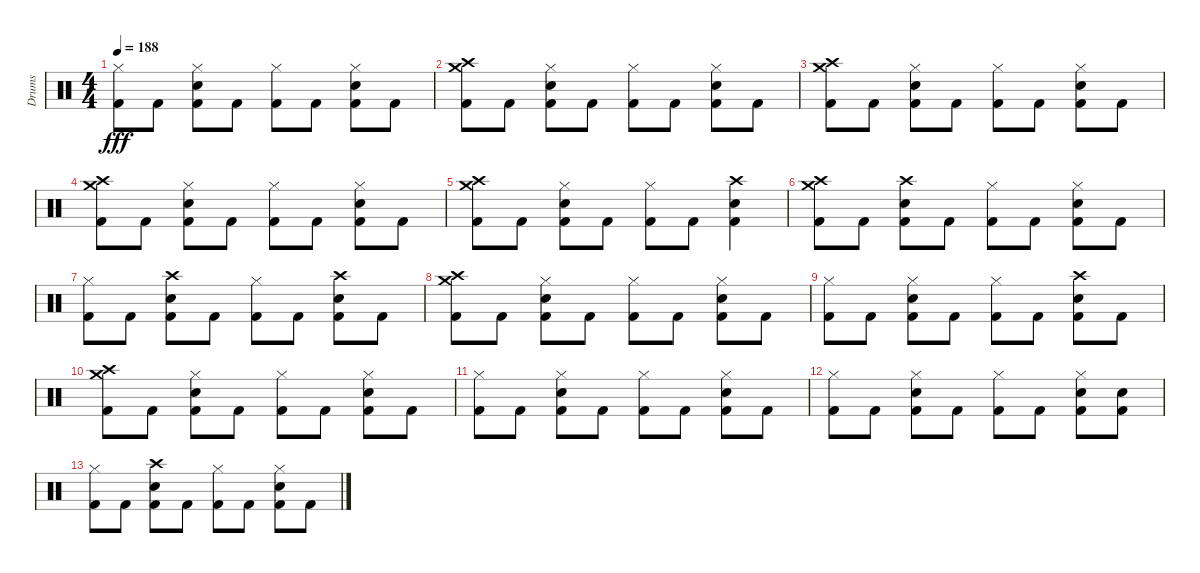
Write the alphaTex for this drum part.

\track ("Drums" "Drums") {instrument percussion}
\staff {score}
\articulation defaults
\ts (4 4)
\tempo 188
\clef neutral
\ks c
("Hi-Hat (closed)" "Kick (hit) 2").8{dy fff} "Kick (hit) 2".8 ("Hi-Hat (closed)" "Electric Snare (hit)" "Kick (hit) 2").8 "Kick (hit) 2".8 ("Hi-Hat (closed)" "Kick (hit) 2").8 "Kick (hit) 2".8 ("Hi-Hat (closed)" "Electric Snare (hit)" "Kick (hit) 2").8 "Kick (hit) 2".8 |
("Crash high (hit)" "Crash medium (hit)" "Kick (hit) 2").8 "Kick (hit) 2".8 ("Hi-Hat (closed)" "Electric Snare (hit)" "Kick (hit) 2").8 "Kick (hit) 2".8 ("Hi-Hat (closed)" "Kick (hit) 2").8 "Kick (hit) 2".8 ("Hi-Hat (closed)" "Electric Snare (hit)" "Kick (hit) 2").8 "Kick (hit) 2".8 |
("Crash high (hit)" "Crash medium (hit)" "Kick (hit) 2").8 "Kick (hit) 2".8 ("Hi-Hat (closed)" "Electric Snare (hit)" "Kick (hit) 2").8 "Kick (hit) 2".8 ("Hi-Hat (closed)" "Kick (hit) 2").8 "Kick (hit) 2".8 ("Hi-Hat (closed)" "Electric Snare (hit)" "Kick (hit) 2").8 "Kick (hit) 2".8 |
("Crash high (hit)" "Crash medium (hit)" "Kick (hit) 2").8 "Kick (hit) 2".8 ("Hi-Hat (closed)" "Electric Snare (hit)" "Kick (hit) 2").8 "Kick (hit) 2".8 ("Hi-Hat (closed)" "Kick (hit) 2").8 "Kick (hit) 2".8 ("Hi-Hat (closed)" "Electric Snare (hit)" "Kick (hit) 2").8 "Kick (hit) 2".8 |
("Crash high (hit)" "Crash medium (hit)" "Kick (hit) 2").8 "Kick (hit) 2".8 ("Hi-Hat (closed)" "Electric Snare (hit)" "Kick (hit) 2").8 "Kick (hit) 2".8 ("Hi-Hat (closed)" "Kick (hit) 2").8 "Kick (hit) 2".8 ("Crash high (hit)" "Electric Snare (hit)" "Kick (hit) 2").4 |
("Crash high (hit)" "Crash medium (hit)" "Kick (hit) 2").8{volume 15} "Kick (hit) 2".8 ("Crash high (hit)" "Electric Snare (hit)" "Kick (hit) 2").8 "Kick (hit) 2".8 ("Hi-Hat (closed)" "Kick (hit) 2").8 "Kick (hit) 2".8{volume 14} ("Hi-Hat (closed)" "Electric Snare (hit)" "Kick (hit) 2").8 "Kick (hit) 2".8 |
("Hi-Hat (closed)" "Kick (hit) 2").8 "Kick (hit) 2".8{volume 13} ("Crash high (hit)" "Electric Snare (hit)" "Kick (hit) 2").8 "Kick (hit) 2".8 ("Hi-Hat (closed)" "Kick (hit) 2").8 "Kick (hit) 2".8{volume 12} ("Crash high (hit)" "Electric Snare (hit)" "Kick (hit) 2").8 "Kick (hit) 2".8 |
("Crash high (hit)" "Crash medium (hit)" "Kick (hit) 2").8 "Kick (hit) 2".8{volume 11} ("Hi-Hat (closed)" "Electric Snare (hit)" "Kick (hit) 2").8 "Kick (hit) 2".8 ("Hi-Hat (closed)" "Kick (hit) 2").8 "Kick (hit) 2".8{volume 10} ("Hi-Hat (closed)" "Electric Snare (hit)" "Kick (hit) 2").8 "Kick (hit) 2".8 |
("Hi-Hat (closed)" "Kick (hit) 2").8 "Kick (hit) 2".8{volume 8} ("Hi-Hat (closed)" "Electric Snare (hit)" "Kick (hit) 2").8 "Kick (hit) 2".8 ("Hi-Hat (closed)" "Kick (hit) 2").8 "Kick (hit) 2".8{volume 6} ("Crash high (hit)" "Electric Snare (hit)" "Kick (hit) 2").8 "Kick (hit) 2".8 |
("Crash high (hit)" "Crash medium (hit)" "Kick (hit) 2").8{volume 5} "Kick (hit) 2".8 ("Hi-Hat (closed)" "Electric Snare (hit)" "Kick (hit) 2").8 "Kick (hit) 2".8 ("Hi-Hat (closed)" "Kick (hit) 2").8 "Kick (hit) 2".8{volume 4} ("Hi-Hat (closed)" "Electric Snare (hit)" "Kick (hit) 2").8 "Kick (hit) 2".8 |
("Hi-Hat (closed)" "Kick (hit) 2").8 "Kick (hit) 2".8{volume 3} ("Hi-Hat (closed)" "Electric Snare (hit)" "Kick (hit) 2").8 "Kick (hit) 2".8 ("Hi-Hat (closed)" "Kick (hit) 2").8 "Kick (hit) 2".8 ("Hi-Hat (closed)" "Electric Snare (hit)" "Kick (hit) 2").8 "Kick (hit) 2".8 |
("Hi-Hat (closed)" "Kick (hit) 2").8{volume 2} "Kick (hit) 2".8 ("Hi-Hat (closed)" "Electric Snare (hit)" "Kick (hit) 2").8 "Kick (hit) 2".8 ("Hi-Hat (closed)" "Kick (hit) 2").8 "Kick (hit) 2".8 ("Hi-Hat (closed)" "Electric Snare (hit)" "Kick (hit) 2").8 ("Electric Snare (hit)" "Kick (hit) 2").8 |
("Hi-Hat (closed)" "Kick (hit) 2").8{volume 1} "Kick (hit) 2".8 ("Crash high (hit)" "Electric Snare (hit)" "Kick (hit) 2").8 "Kick (hit) 2".8 ("Hi-Hat (closed)" "Kick (hit) 2").8 "Kick (hit) 2".8 ("Hi-Hat (closed)" "Electric Snare (hit)" "Kick (hit) 2").8 "Kick (hit) 2".8
